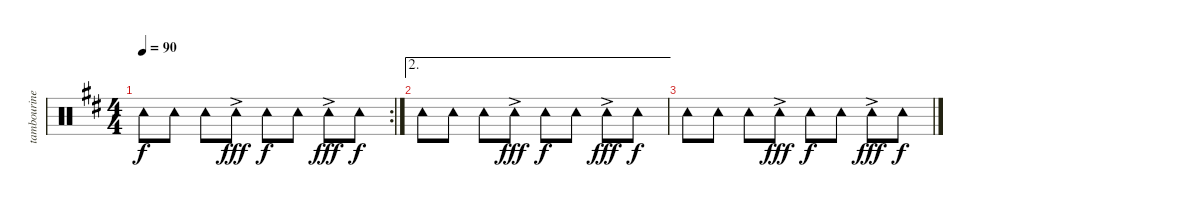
\track ("tambourine" "tambourine") {instrument percussion}
\staff {score}
\articulation defaults
\rc 2
\ts (4 4)
\tempo 90
\clef neutral
\ks d "Tambourine (hit)".8{dy f} "Tambourine (hit)".8 "Tambourine (hit)".8 "Tambourine (hit)"{ac}.8{dy fff} "Tambourine (hit)".8{dy f} "Tambourine (hit)".8 "Tambourine (hit)"{ac}.8{dy fff} "Tambourine (hit)".8{dy f}
|
\ae 2 "Tambourine (hit)".8 "Tambourine (hit)".8 "Tambourine (hit)".8 "Tambourine (hit)"{ac}.8{dy fff} "Tambourine (hit)".8{dy f} "Tambourine (hit)".8 "Tambourine (hit)"{ac}.8{dy fff} "Tambourine (hit)".8{dy f}
|
"Tambourine (hit)".8 "Tambourine (hit)".8 "Tambourine (hit)".8 "Tambourine (hit)"{ac}.8{dy fff} "Tambourine (hit)".8{dy f} "Tambourine (hit)".8 "Tambourine (hit)"{ac}.8{dy fff} "Tambourine (hit)".8{dy f}
